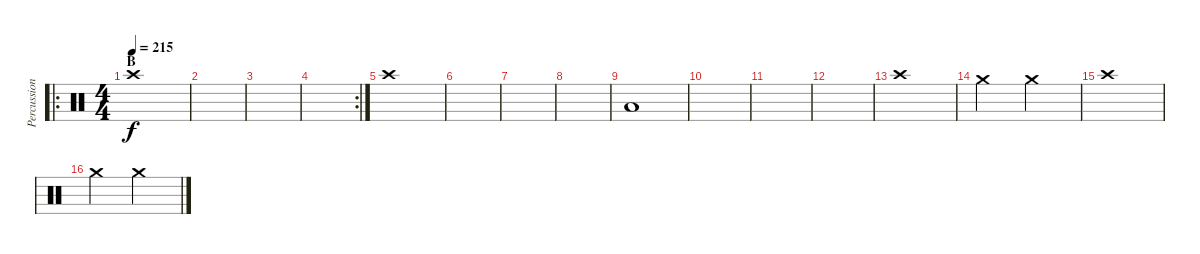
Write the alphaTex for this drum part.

\track ("Percussion" "Percussion") {instrument percussion}
\staff {score}
\articulation defaults
\ro
\ts (4 4)
\section ("" "B")
\tempo 215
\clef neutral
\ks c "Crash high (hit)".1{dy f}
|
|
|
\rc 2
|
"Crash high (hit)".1 |
|
|
|
"Low Floor Tom (hit)".1 |
|
|
|
"Crash high (hit)".1 |
"Crash medium (hit)".2 "Crash medium (hit)".2 |
"Crash high (hit)".1 |
"Crash medium (hit)".2 "Crash medium (hit)".2
